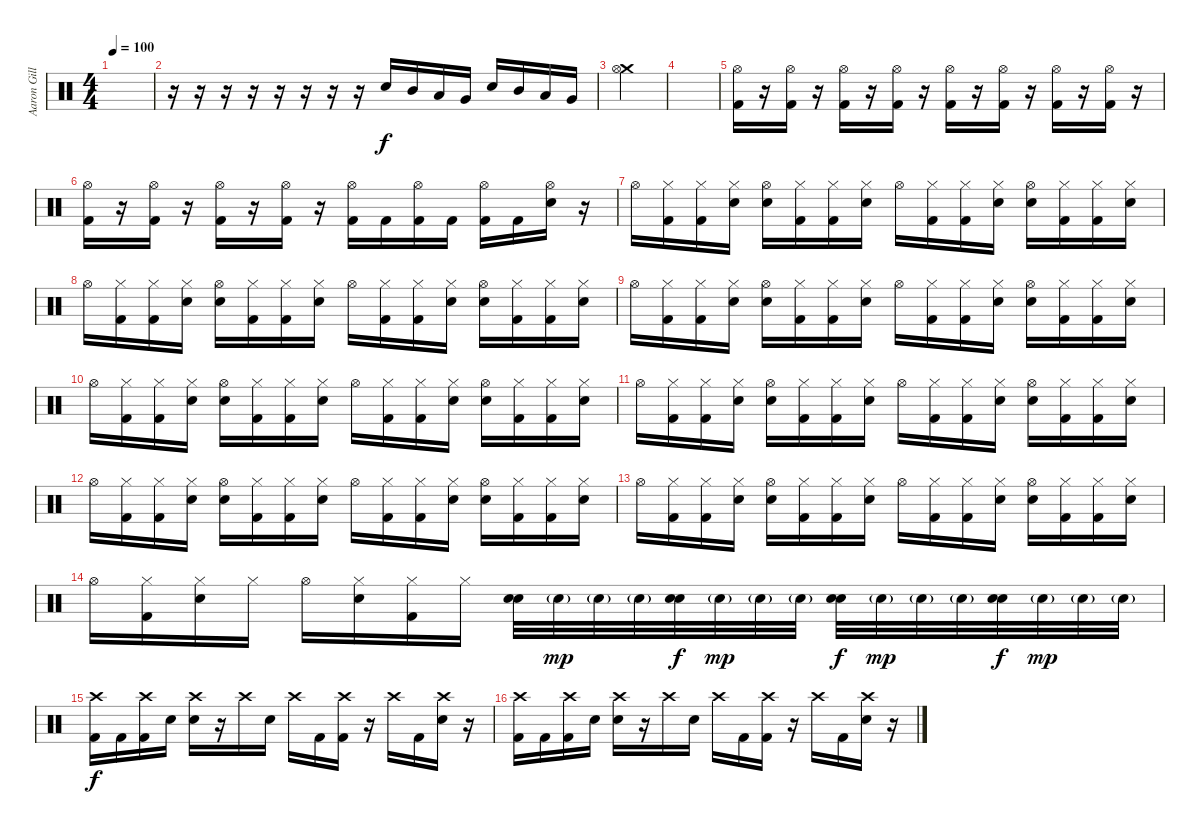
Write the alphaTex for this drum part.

\track ("Aaron Gillespie" "Aaron Gill") {instrument percussion}
\staff {score}
\articulation defaults
\ts (4 4)
\tempo 100
\clef neutral
\ks c
|
r.16 r.16 r.16 r.16 r.16 r.16 r.16 r.16 "Electric Snare (hit)".16 "Mid Tom (hit)".16 "Low Tom (hit)".16 "Very Low Tom (hit)".16 "Electric Snare (hit)".16 "Mid Tom (hit)".16 "Low Tom (hit)".16 "Very Low Tom (hit)".16 |
("Crash medium (hit)" "Hi-Hat (open)").4 |
|
("Hi-Hat (open)" "Kick (hit) 2").16 r.16 ("Hi-Hat (open)" "Kick (hit) 2").16 r.16 ("Hi-Hat (open)" "Kick (hit) 2").16 r.16 ("Hi-Hat (open)" "Kick (hit) 2").16 r.16 ("Hi-Hat (open)" "Kick (hit) 2").16 r.16 ("Hi-Hat (open)" "Kick (hit) 2").16 r.16 ("Hi-Hat (open)" "Kick (hit) 2").16 r.16 ("Hi-Hat (open)" "Kick (hit) 2").16 r.16 |
("Hi-Hat (open)" "Kick (hit) 2").16 r.16 ("Hi-Hat (open)" "Kick (hit) 2").16 r.16 ("Hi-Hat (open)" "Kick (hit) 2").16 r.16 ("Hi-Hat (open)" "Kick (hit) 2").16 r.16 ("Hi-Hat (open)" "Kick (hit) 2").16 "Kick (hit) 2".16 ("Hi-Hat (open)" "Kick (hit) 2").16 "Kick (hit) 2".16 ("Hi-Hat (open)" "Kick (hit) 2").16 "Kick (hit) 2".16 ("Hi-Hat (open)" "Electric Snare (hit)").16 r.16 |
"Hi-Hat (open)".16 ("Hi-Hat (closed)" "Kick (hit) 2").16 ("Hi-Hat (closed)" "Kick (hit) 2").16 ("Hi-Hat (closed)" "Electric Snare (hit)").16 ("Hi-Hat (open)" "Electric Snare (hit)").16 ("Hi-Hat (closed)" "Kick (hit) 2").16 ("Hi-Hat (closed)" "Kick (hit) 2").16 ("Hi-Hat (closed)" "Electric Snare (hit)").16 "Hi-Hat (open)".16 ("Hi-Hat (closed)" "Kick (hit) 2").16 ("Hi-Hat (closed)" "Kick (hit) 2").16 ("Hi-Hat (closed)" "Electric Snare (hit)").16 ("Hi-Hat (open)" "Electric Snare (hit)").16 ("Hi-Hat (closed)" "Kick (hit) 2").16 ("Hi-Hat (closed)" "Kick (hit) 2").16 ("Hi-Hat (closed)" "Electric Snare (hit)").16 |
"Hi-Hat (open)".16 ("Hi-Hat (closed)" "Kick (hit) 2").16 ("Hi-Hat (closed)" "Kick (hit) 2").16 ("Hi-Hat (closed)" "Electric Snare (hit)").16 ("Hi-Hat (open)" "Electric Snare (hit)").16 ("Hi-Hat (closed)" "Kick (hit) 2").16 ("Hi-Hat (closed)" "Kick (hit) 2").16 ("Hi-Hat (closed)" "Electric Snare (hit)").16 "Hi-Hat (open)".16 ("Hi-Hat (closed)" "Kick (hit) 2").16 ("Hi-Hat (closed)" "Kick (hit) 2").16 ("Hi-Hat (closed)" "Electric Snare (hit)").16 ("Hi-Hat (open)" "Electric Snare (hit)").16 ("Hi-Hat (closed)" "Kick (hit) 2").16 ("Hi-Hat (closed)" "Kick (hit) 2").16 ("Hi-Hat (closed)" "Electric Snare (hit)").16 |
"Hi-Hat (open)".16 ("Hi-Hat (closed)" "Kick (hit) 2").16 ("Hi-Hat (closed)" "Kick (hit) 2").16 ("Hi-Hat (closed)" "Electric Snare (hit)").16 ("Hi-Hat (open)" "Electric Snare (hit)").16 ("Hi-Hat (closed)" "Kick (hit) 2").16 ("Hi-Hat (closed)" "Kick (hit) 2").16 ("Hi-Hat (closed)" "Electric Snare (hit)").16 "Hi-Hat (open)".16 ("Hi-Hat (closed)" "Kick (hit) 2").16 ("Hi-Hat (closed)" "Kick (hit) 2").16 ("Hi-Hat (closed)" "Electric Snare (hit)").16 ("Hi-Hat (open)" "Electric Snare (hit)").16 ("Hi-Hat (closed)" "Kick (hit) 2").16 ("Hi-Hat (closed)" "Kick (hit) 2").16 ("Hi-Hat (closed)" "Electric Snare (hit)").16 |
"Hi-Hat (open)".16 ("Hi-Hat (closed)" "Kick (hit) 2").16 ("Hi-Hat (closed)" "Kick (hit) 2").16 ("Hi-Hat (closed)" "Electric Snare (hit)").16 ("Hi-Hat (open)" "Electric Snare (hit)").16 ("Hi-Hat (closed)" "Kick (hit) 2").16 ("Hi-Hat (closed)" "Kick (hit) 2").16 ("Hi-Hat (closed)" "Electric Snare (hit)").16 "Hi-Hat (open)".16 ("Hi-Hat (closed)" "Kick (hit) 2").16 ("Hi-Hat (closed)" "Kick (hit) 2").16 ("Hi-Hat (closed)" "Electric Snare (hit)").16 ("Hi-Hat (open)" "Electric Snare (hit)").16 ("Hi-Hat (closed)" "Kick (hit) 2").16 ("Hi-Hat (closed)" "Kick (hit) 2").16 ("Hi-Hat (closed)" "Electric Snare (hit)").16 |
"Hi-Hat (open)".16 ("Hi-Hat (closed)" "Kick (hit) 2").16 ("Hi-Hat (closed)" "Kick (hit) 2").16 ("Hi-Hat (closed)" "Electric Snare (hit)").16 ("Hi-Hat (open)" "Electric Snare (hit)").16 ("Hi-Hat (closed)" "Kick (hit) 2").16 ("Hi-Hat (closed)" "Kick (hit) 2").16 ("Hi-Hat (closed)" "Electric Snare (hit)").16 "Hi-Hat (open)".16 ("Hi-Hat (closed)" "Kick (hit) 2").16 ("Hi-Hat (closed)" "Kick (hit) 2").16 ("Hi-Hat (closed)" "Electric Snare (hit)").16 ("Hi-Hat (open)" "Electric Snare (hit)").16 ("Hi-Hat (closed)" "Kick (hit) 2").16 ("Hi-Hat (closed)" "Kick (hit) 2").16 ("Hi-Hat (closed)" "Electric Snare (hit)").16 |
"Hi-Hat (open)".16 ("Hi-Hat (closed)" "Kick (hit) 2").16 ("Hi-Hat (closed)" "Kick (hit) 2").16 ("Hi-Hat (closed)" "Electric Snare (hit)").16 ("Hi-Hat (open)" "Electric Snare (hit)").16 ("Hi-Hat (closed)" "Kick (hit) 2").16 ("Hi-Hat (closed)" "Kick (hit) 2").16 ("Hi-Hat (closed)" "Electric Snare (hit)").16 "Hi-Hat (open)".16 ("Hi-Hat (closed)" "Kick (hit) 2").16 ("Hi-Hat (closed)" "Kick (hit) 2").16 ("Hi-Hat (closed)" "Electric Snare (hit)").16 ("Hi-Hat (open)" "Electric Snare (hit)").16 ("Hi-Hat (closed)" "Kick (hit) 2").16 ("Hi-Hat (closed)" "Kick (hit) 2").16 ("Hi-Hat (closed)" "Electric Snare (hit)").16 |
"Hi-Hat (open)".16 ("Hi-Hat (closed)" "Kick (hit) 2").16 ("Hi-Hat (closed)" "Kick (hit) 2").16 ("Hi-Hat (closed)" "Electric Snare (hit)").16 ("Hi-Hat (open)" "Electric Snare (hit)").16 ("Hi-Hat (closed)" "Kick (hit) 2").16 ("Hi-Hat (closed)" "Kick (hit) 2").16 ("Hi-Hat (closed)" "Electric Snare (hit)").16 "Hi-Hat (open)".16 ("Hi-Hat (closed)" "Kick (hit) 2").16 ("Hi-Hat (closed)" "Kick (hit) 2").16 ("Hi-Hat (closed)" "Electric Snare (hit)").16 ("Hi-Hat (open)" "Electric Snare (hit)").16 ("Hi-Hat (closed)" "Kick (hit) 2").16 ("Hi-Hat (closed)" "Kick (hit) 2").16 ("Hi-Hat (closed)" "Electric Snare (hit)").16 |
"Hi-Hat (open)".16 ("Hi-Hat (closed)" "Kick (hit) 2").16 ("Hi-Hat (closed)" "Electric Snare (hit)").16 "Hi-Hat (closed)".16 "Hi-Hat (open)".16 ("Hi-Hat (closed)" "Electric Snare (hit)").16 ("Hi-Hat (closed)" "Kick (hit) 2").16 "Hi-Hat (closed)".16 ("Electric Snare (hit)" "Electric Snare (hit)").32 "Electric Snare (hit)"{g}.32{dy mp} "Electric Snare (hit)"{g}.32 "Electric Snare (hit)"{g}.32 ("Electric Snare (hit)" "Electric Snare (hit)").32{dy f} "Electric Snare (hit)"{g}.32{dy mp} "Electric Snare (hit)"{g}.32 "Electric Snare (hit)"{g}.32 ("Electric Snare (hit)" "Electric Snare (hit)").32{dy f} "Electric Snare (hit)"{g}.32{dy mp} "Electric Snare (hit)"{g}.32 "Electric Snare (hit)"{g}.32 ("Electric Snare (hit)" "Electric Snare (hit)").32{dy f} "Electric Snare (hit)"{g}.32{dy mp} "Electric Snare (hit)"{g}.32 "Electric Snare (hit)"{g}.32 |
("Crash high (hit)" "Kick (hit) 2").16{dy f} "Kick (hit) 2".16 ("Crash high (hit)" "Kick (hit) 2").16 "Electric Snare (hit)".16 ("Crash high (hit)" "Electric Snare (hit)").16 r.16 "Crash high (hit)".16 "Electric Snare (hit)".16 "Crash high (hit)".16 "Kick (hit) 2".16 ("Crash high (hit)" "Kick (hit) 2").16 r.16 "Crash high (hit)".16 "Kick (hit) 2".16 ("Crash high (hit)" "Electric Snare (hit)").16 r.16 |
("Crash high (hit)" "Kick (hit) 2").16 "Kick (hit) 2".16 ("Crash high (hit)" "Kick (hit) 2").16 "Electric Snare (hit)".16 ("Crash high (hit)" "Electric Snare (hit)").16 r.16 "Crash high (hit)".16 "Electric Snare (hit)".16 "Crash high (hit)".16 "Kick (hit) 2".16 ("Crash high (hit)" "Kick (hit) 2").16 r.16 "Crash high (hit)".16 "Kick (hit) 2".16 ("Crash high (hit)" "Electric Snare (hit)").16 r.16
